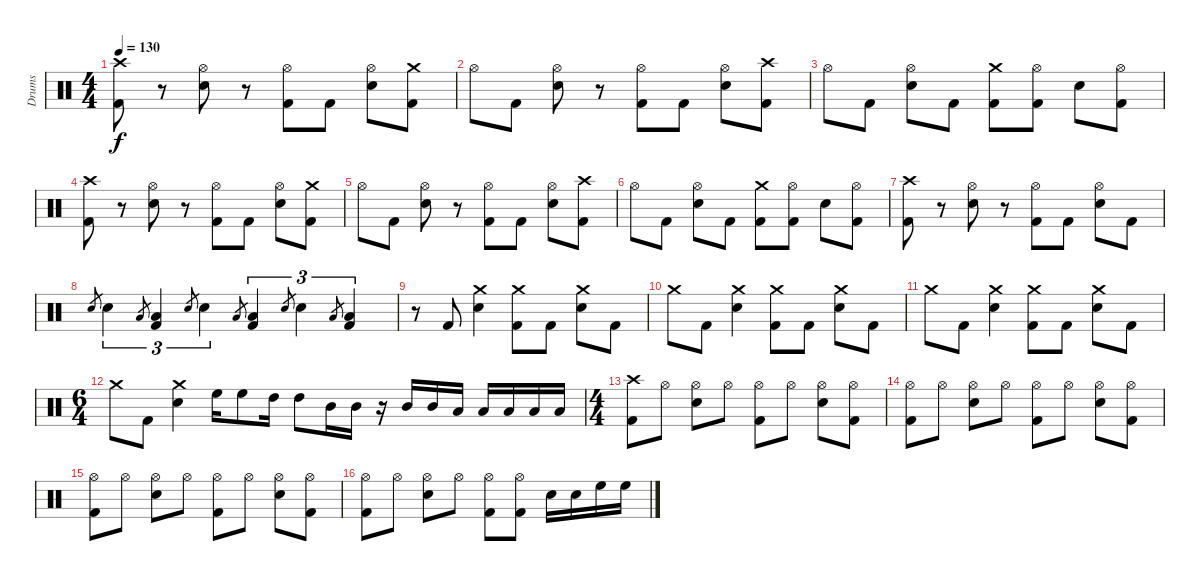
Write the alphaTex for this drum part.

\track ("Drums" "Drums") {instrument percussion}
\staff {score}
\articulation defaults
\ts (4 4)
\tempo 130
\clef neutral
\ks c
("Crash high (hit)" "Kick (hit) 2").8{dy f} r.8 ("Hi-Hat (open)" "Electric Snare (hit)").8 r.8 ("Hi-Hat (open)" "Kick (hit) 2").8 "Kick (hit) 2".8 ("Hi-Hat (open)" "Electric Snare (hit)").8 ("Crash medium (hit)" "Kick (hit) 2").8 |
"Hi-Hat (open)".8 "Kick (hit) 2".8 ("Hi-Hat (open)" "Electric Snare (hit)").8 r.8 ("Hi-Hat (open)" "Kick (hit) 2").8 "Kick (hit) 2".8 ("Hi-Hat (open)" "Electric Snare (hit)").8 ("Crash high (hit)" "Kick (hit) 2").8 |
"Hi-Hat (open)".8 "Kick (hit) 2".8 ("Hi-Hat (open)" "Electric Snare (hit)").8 "Kick (hit) 2".8 ("Crash medium (hit)" "Kick (hit) 2").8 ("Hi-Hat (open)" "Kick (hit) 2").8 "Electric Snare (hit)".8 ("Hi-Hat (open)" "Kick (hit) 2").8 |
("Crash high (hit)" "Kick (hit) 2").8 r.8 ("Hi-Hat (open)" "Electric Snare (hit)").8 r.8 ("Hi-Hat (open)" "Kick (hit) 2").8 "Kick (hit) 2".8 ("Hi-Hat (open)" "Electric Snare (hit)").8 ("Crash medium (hit)" "Kick (hit) 2").8 |
"Hi-Hat (open)".8 "Kick (hit) 2".8 ("Hi-Hat (open)" "Electric Snare (hit)").8 r.8 ("Hi-Hat (open)" "Kick (hit) 2").8 "Kick (hit) 2".8 ("Hi-Hat (open)" "Electric Snare (hit)").8 ("Crash high (hit)" "Kick (hit) 2").8 |
"Hi-Hat (open)".8 "Kick (hit) 2".8 ("Hi-Hat (open)" "Electric Snare (hit)").8 "Kick (hit) 2".8 ("Crash medium (hit)" "Kick (hit) 2").8 ("Hi-Hat (open)" "Kick (hit) 2").8 "Electric Snare (hit)".8 ("Hi-Hat (open)" "Kick (hit) 2").8 |
("Crash high (hit)" "Kick (hit) 2").8 r.8 ("Hi-Hat (open)" "Electric Snare (hit)").8 r.8 ("Hi-Hat (open)" "Kick (hit) 2").8 "Kick (hit) 2".8 ("Hi-Hat (open)" "Electric Snare (hit)").8 "Kick (hit) 2".8 |
"Electric Snare (hit)".8{gr} "Electric Snare (hit)".4{tu (3 2)} "Low Tom (hit)".8{gr} ("Low Tom (hit)" "Kick (hit) 2").4{tu (3 2)} "Electric Snare (hit)".8{gr} "Electric Snare (hit)".4{tu (3 2)} "Low Tom (hit)".8{gr} ("Low Tom (hit)" "Kick (hit) 2").4{tu (3 2)} "Electric Snare (hit)".8{gr} "Electric Snare (hit)".4{tu (3 2)} "Low Floor Tom (hit)".8{gr} ("Low Floor Tom (hit)" "Kick (hit) 2").4{tu (3 2)} |
r.8 "Kick (hit) 2".8 ("Crash medium (hit)" "Electric Snare (hit)").4 ("Crash medium (hit)" "Kick (hit) 2").8 "Kick (hit) 2".8 ("Crash medium (hit)" "Electric Snare (hit)").8 "Kick (hit) 2".8 |
"Crash medium (hit)".8 "Kick (hit) 2".8 ("Crash medium (hit)" "Electric Snare (hit)").4 ("Crash medium (hit)" "Kick (hit) 2").8 "Kick (hit) 2".8 ("Crash medium (hit)" "Electric Snare (hit)").8 "Kick (hit) 2".8 |
"Crash medium (hit)".8 "Kick (hit) 2".8 ("Crash medium (hit)" "Electric Snare (hit)").4 ("Crash medium (hit)" "Kick (hit) 2").8 "Kick (hit) 2".8 ("Crash medium (hit)" "Electric Snare (hit)").8 "Kick (hit) 2".8 |
\ts (6 4)
"Crash medium (hit)".8 "Kick (hit) 2".8 ("Crash medium (hit)" "Electric Snare (hit)").4 "High Floor Tom (hit)".16 "High Floor Tom (hit)".8 "High Tom (hit)".16 "High Tom (hit)".8 "Mid Tom (hit)".16 "Mid Tom (hit)".16 r.16 "Mid Tom (hit)".16 "Mid Tom (hit)".16 "Low Tom (hit)".16 "Low Tom (hit)".16 "Low Tom (hit)".16 "Low Floor Tom (hit)".16 "Low Floor Tom (hit)".16 |
\ts (4 4)
("Crash high (hit)" "Kick (hit) 2").8 "Hi-Hat (open)".8 ("Hi-Hat (open)" "Electric Snare (hit)").8 "Hi-Hat (open)".8 ("Hi-Hat (open)" "Kick (hit) 2").8 "Hi-Hat (open)".8 ("Hi-Hat (open)" "Electric Snare (hit)").8 ("Hi-Hat (open)" "Kick (hit) 2").8 |
("Hi-Hat (open)" "Kick (hit) 2").8 "Hi-Hat (open)".8 ("Hi-Hat (open)" "Electric Snare (hit)").8 "Hi-Hat (open)".8 ("Hi-Hat (open)" "Kick (hit) 2").8 "Hi-Hat (open)".8 ("Hi-Hat (open)" "Electric Snare (hit)").8 ("Hi-Hat (open)" "Kick (hit) 2").8 |
("Hi-Hat (open)" "Kick (hit) 2").8 "Hi-Hat (open)".8 ("Hi-Hat (open)" "Electric Snare (hit)").8 "Hi-Hat (open)".8 ("Hi-Hat (open)" "Kick (hit) 2").8 "Hi-Hat (open)".8 ("Hi-Hat (open)" "Electric Snare (hit)").8 ("Hi-Hat (open)" "Kick (hit) 2").8 |
("Hi-Hat (open)" "Kick (hit) 2").8 "Hi-Hat (open)".8 ("Hi-Hat (open)" "Electric Snare (hit)").8 "Hi-Hat (open)".8 ("Hi-Hat (open)" "Kick (hit) 2").8 ("Hi-Hat (open)" "Kick (hit) 2").8 "Electric Snare (hit)".16 "Electric Snare (hit)".16 "High Floor Tom (hit)".16 "High Floor Tom (hit)".16
